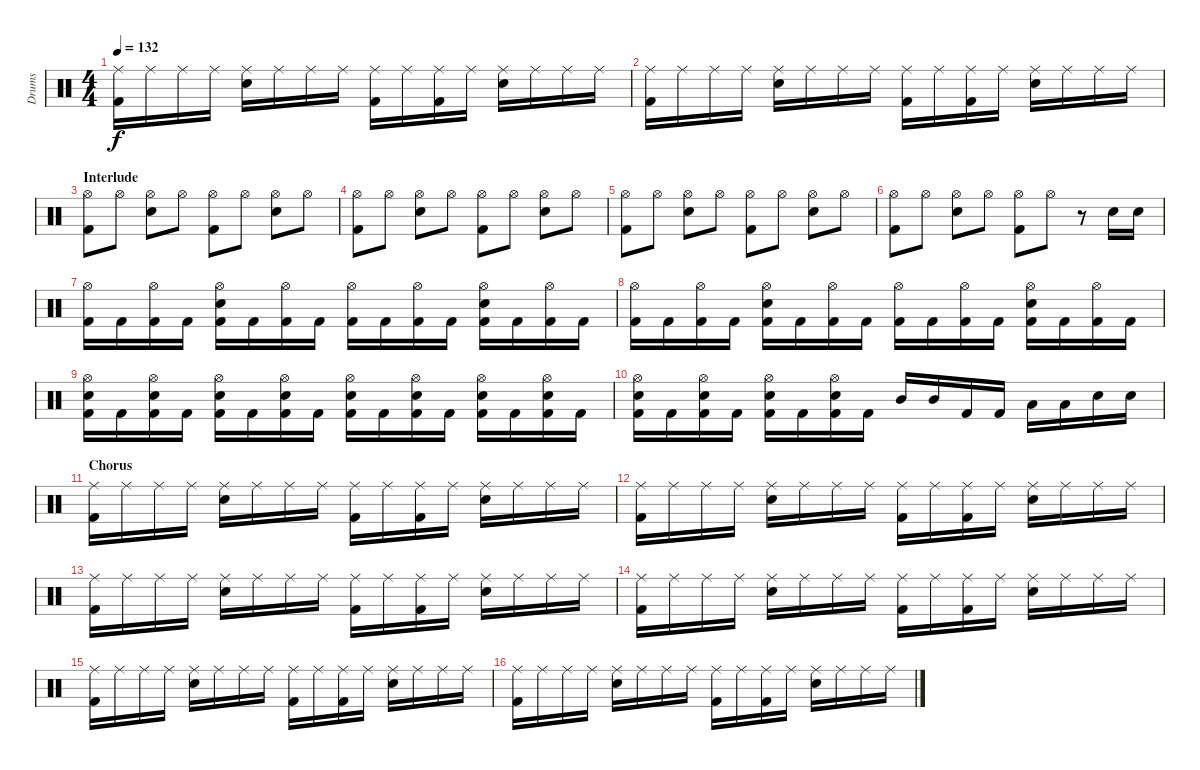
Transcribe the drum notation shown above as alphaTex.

\track ("Drums" "Drums") {instrument percussion}
\staff {score}
\articulation defaults
\ts (4 4)
\tempo 132
\clef neutral
\ks c
("Ride (middle)" "Kick (hit) 2").16{dy f} "Ride (middle)".16 "Ride (middle)".16 "Ride (middle)".16 ("Ride (middle)" "Electric Snare (hit)").16 "Ride (middle)".16 "Ride (middle)".16 "Ride (middle)".16 ("Ride (middle)" "Kick (hit) 2").16 "Ride (middle)".16 ("Ride (middle)" "Kick (hit) 2").16 "Ride (middle)".16 ("Ride (middle)" "Electric Snare (hit)").16 "Ride (middle)".16 "Ride (middle)".16 "Ride (middle)".16 |
("Ride (middle)" "Kick (hit) 2").16 "Ride (middle)".16 "Ride (middle)".16 "Ride (middle)".16 ("Ride (middle)" "Electric Snare (hit)").16 "Ride (middle)".16 "Ride (middle)".16 "Ride (middle)".16 ("Ride (middle)" "Kick (hit) 2").16 "Ride (middle)".16 ("Ride (middle)" "Kick (hit) 2").16 "Ride (middle)".16 ("Ride (middle)" "Electric Snare (hit)").16 "Ride (middle)".16 "Ride (middle)".16 "Ride (middle)".16 |
\section ("" "Interlude")
("Hi-Hat (open)" "Kick (hit) 2").8 "Hi-Hat (open)".8 ("Hi-Hat (open)" "Electric Snare (hit)").8 "Hi-Hat (open)".8 ("Hi-Hat (open)" "Kick (hit) 2").8 "Hi-Hat (open)".8 ("Hi-Hat (open)" "Electric Snare (hit)").8 "Hi-Hat (open)".8 |
("Hi-Hat (open)" "Kick (hit) 2").8 "Hi-Hat (open)".8 ("Hi-Hat (open)" "Electric Snare (hit)").8 "Hi-Hat (open)".8 ("Hi-Hat (open)" "Kick (hit) 2").8 "Hi-Hat (open)".8 ("Hi-Hat (open)" "Electric Snare (hit)").8 "Hi-Hat (open)".8 |
("Hi-Hat (open)" "Kick (hit) 2").8 "Hi-Hat (open)".8 ("Hi-Hat (open)" "Electric Snare (hit)").8 "Hi-Hat (open)".8 ("Hi-Hat (open)" "Kick (hit) 2").8 "Hi-Hat (open)".8 ("Hi-Hat (open)" "Electric Snare (hit)").8 "Hi-Hat (open)".8 |
("Hi-Hat (open)" "Kick (hit) 2").8 "Hi-Hat (open)".8 ("Hi-Hat (open)" "Electric Snare (hit)").8 "Hi-Hat (open)".8 ("Hi-Hat (open)" "Kick (hit) 2").8 "Hi-Hat (open)".8 r.8 "Electric Snare (hit)".16 "Electric Snare (hit)".16 |
("Hi-Hat (open)" "Kick (hit) 2").16 "Kick (hit) 2".16 ("Hi-Hat (open)" "Kick (hit) 2").16 "Kick (hit) 2".16 ("Hi-Hat (open)" "Electric Snare (hit)" "Kick (hit) 2").16 "Kick (hit) 2".16 ("Hi-Hat (open)" "Kick (hit) 2").16 "Kick (hit) 2".16 ("Hi-Hat (open)" "Kick (hit) 2").16 "Kick (hit) 2".16 ("Hi-Hat (open)" "Kick (hit) 2").16 "Kick (hit) 2".16 ("Hi-Hat (open)" "Electric Snare (hit)" "Kick (hit) 2").16 "Kick (hit) 2".16 ("Hi-Hat (open)" "Kick (hit) 2").16 "Kick (hit) 2".16 |
("Hi-Hat (open)" "Kick (hit) 2").16 "Kick (hit) 2".16 ("Hi-Hat (open)" "Kick (hit) 2").16 "Kick (hit) 2".16 ("Hi-Hat (open)" "Electric Snare (hit)" "Kick (hit) 2").16 "Kick (hit) 2".16 ("Hi-Hat (open)" "Kick (hit) 2").16 "Kick (hit) 2".16 ("Hi-Hat (open)" "Kick (hit) 2").16 "Kick (hit) 2".16 ("Hi-Hat (open)" "Kick (hit) 2").16 "Kick (hit) 2".16 ("Hi-Hat (open)" "Electric Snare (hit)" "Kick (hit) 2").16 "Kick (hit) 2".16 ("Hi-Hat (open)" "Kick (hit) 2").16 "Kick (hit) 2".16 |
("Hi-Hat (open)" "Electric Snare (hit)" "Kick (hit) 2").16 "Kick (hit) 2".16 ("Hi-Hat (open)" "Electric Snare (hit)" "Kick (hit) 2").16 "Kick (hit) 2".16 ("Hi-Hat (open)" "Electric Snare (hit)" "Kick (hit) 2").16 "Kick (hit) 2".16 ("Hi-Hat (open)" "Electric Snare (hit)" "Kick (hit) 2").16 "Kick (hit) 2".16 ("Hi-Hat (open)" "Electric Snare (hit)" "Kick (hit) 2").16 "Kick (hit) 2".16 ("Hi-Hat (open)" "Electric Snare (hit)" "Kick (hit) 2").16 "Kick (hit) 2".16 ("Hi-Hat (open)" "Electric Snare (hit)" "Kick (hit) 2").16 "Kick (hit) 2".16 ("Hi-Hat (open)" "Electric Snare (hit)" "Kick (hit) 2").16 "Kick (hit) 2".16 |
("Hi-Hat (open)" "Electric Snare (hit)" "Kick (hit) 2").16 "Kick (hit) 2".16 ("Hi-Hat (open)" "Electric Snare (hit)" "Kick (hit) 2").16 "Kick (hit) 2".16 ("Hi-Hat (open)" "Electric Snare (hit)" "Kick (hit) 2").16 "Kick (hit) 2".16 ("Hi-Hat (open)" "Electric Snare (hit)" "Kick (hit) 2").16 "Kick (hit) 2".16 "Mid Tom (hit)".16 "Mid Tom (hit)".16 "Kick (hit) 2".16 "Kick (hit) 2".16 "Low Tom (hit)".16 "Low Tom (hit)".16 "Electric Snare (hit)".16 "Electric Snare (hit)".16 |
\section ("" "Chorus")
("Ride (middle)" "Kick (hit) 2").16 "Ride (middle)".16 "Ride (middle)".16 "Ride (middle)".16 ("Ride (middle)" "Electric Snare (hit)").16 "Ride (middle)".16 "Ride (middle)".16 "Ride (middle)".16 ("Ride (middle)" "Kick (hit) 2").16 "Ride (middle)".16 ("Ride (middle)" "Kick (hit) 2").16 "Ride (middle)".16 ("Ride (middle)" "Electric Snare (hit)").16 "Ride (middle)".16 "Ride (middle)".16 "Ride (middle)".16 |
("Ride (middle)" "Kick (hit) 2").16 "Ride (middle)".16 "Ride (middle)".16 "Ride (middle)".16 ("Ride (middle)" "Electric Snare (hit)").16 "Ride (middle)".16 "Ride (middle)".16 "Ride (middle)".16 ("Ride (middle)" "Kick (hit) 2").16 "Ride (middle)".16 ("Ride (middle)" "Kick (hit) 2").16 "Ride (middle)".16 ("Ride (middle)" "Electric Snare (hit)").16 "Ride (middle)".16 "Ride (middle)".16 "Ride (middle)".16 |
("Ride (middle)" "Kick (hit) 2").16 "Ride (middle)".16 "Ride (middle)".16 "Ride (middle)".16 ("Ride (middle)" "Electric Snare (hit)").16 "Ride (middle)".16 "Ride (middle)".16 "Ride (middle)".16 ("Ride (middle)" "Kick (hit) 2").16 "Ride (middle)".16 ("Ride (middle)" "Kick (hit) 2").16 "Ride (middle)".16 ("Ride (middle)" "Electric Snare (hit)").16 "Ride (middle)".16 "Ride (middle)".16 "Ride (middle)".16 |
("Ride (middle)" "Kick (hit) 2").16 "Ride (middle)".16 "Ride (middle)".16 "Ride (middle)".16 ("Ride (middle)" "Electric Snare (hit)").16 "Ride (middle)".16 "Ride (middle)".16 "Ride (middle)".16 ("Ride (middle)" "Kick (hit) 2").16 "Ride (middle)".16 ("Ride (middle)" "Kick (hit) 2").16 "Ride (middle)".16 ("Ride (middle)" "Electric Snare (hit)").16 "Ride (middle)".16 "Ride (middle)".16 "Ride (middle)".16 |
("Ride (middle)" "Kick (hit) 2").16 "Ride (middle)".16 "Ride (middle)".16 "Ride (middle)".16 ("Ride (middle)" "Electric Snare (hit)").16 "Ride (middle)".16 "Ride (middle)".16 "Ride (middle)".16 ("Ride (middle)" "Kick (hit) 2").16 "Ride (middle)".16 ("Ride (middle)" "Kick (hit) 2").16 "Ride (middle)".16 ("Ride (middle)" "Electric Snare (hit)").16 "Ride (middle)".16 "Ride (middle)".16 "Ride (middle)".16 |
("Ride (middle)" "Kick (hit) 2").16 "Ride (middle)".16 "Ride (middle)".16 "Ride (middle)".16 ("Ride (middle)" "Electric Snare (hit)").16 "Ride (middle)".16 "Ride (middle)".16 "Ride (middle)".16 ("Ride (middle)" "Kick (hit) 2").16 "Ride (middle)".16 ("Ride (middle)" "Kick (hit) 2").16 "Ride (middle)".16 ("Ride (middle)" "Electric Snare (hit)").16 "Ride (middle)".16 "Ride (middle)".16 "Ride (middle)".16
